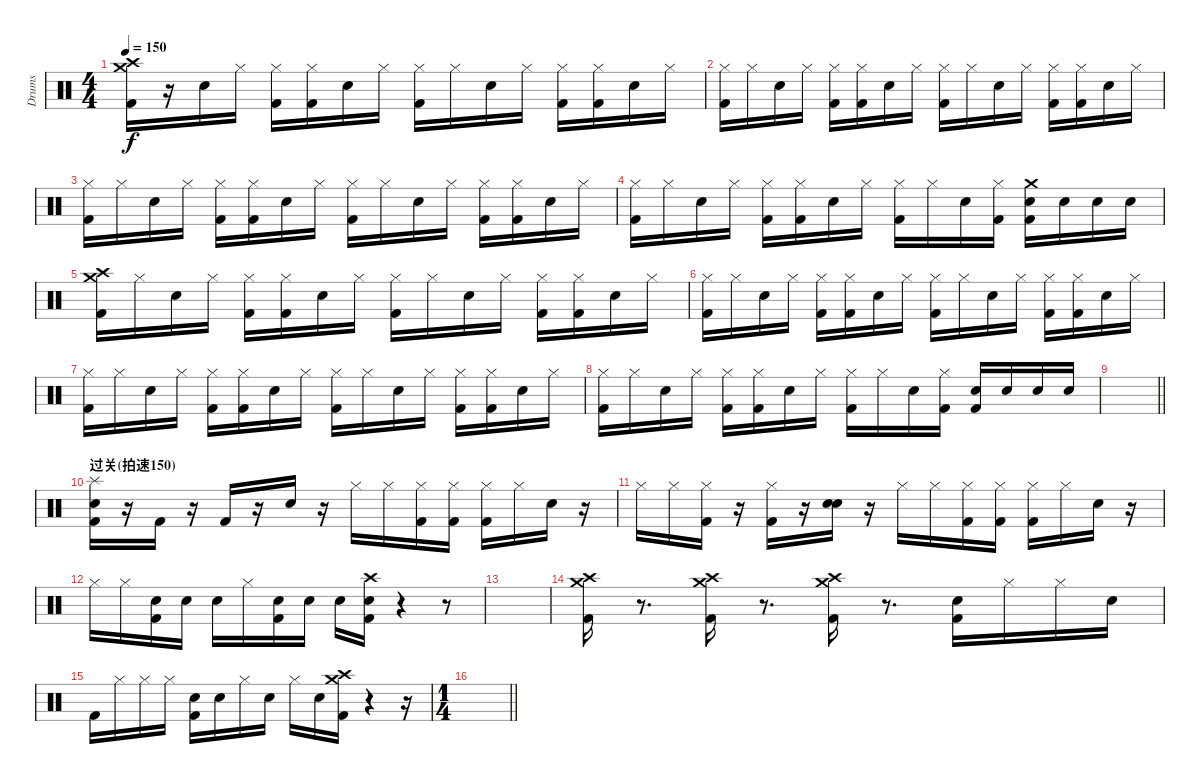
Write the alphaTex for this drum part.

\track ("Drums" "Drums") {instrument percussion}
\staff {score}
\articulation defaults
\ts (4 4)
\tempo 150
\clef neutral
\ks c
("Crash medium (hit)" "Crash high (hit)" "Kick (hit) 2").16{dy f} r.16 "Snare (hit) 2".16 "Hi-Hat (closed)".16 ("Hi-Hat (closed)" "Kick (hit) 2").16 ("Hi-Hat (closed)" "Kick (hit) 2").16 "Snare (hit) 2".16 "Hi-Hat (closed)".16 ("Hi-Hat (closed)" "Kick (hit) 2").16 "Hi-Hat (closed)".16 "Snare (hit) 2".16 "Hi-Hat (closed)".16 ("Hi-Hat (closed)" "Kick (hit) 2").16 ("Hi-Hat (closed)" "Kick (hit) 2").16 "Snare (hit) 2".16 "Hi-Hat (closed)".16 |
("Hi-Hat (closed)" "Kick (hit) 2").16 "Hi-Hat (closed)".16 "Snare (hit) 2".16 "Hi-Hat (closed)".16 ("Hi-Hat (closed)" "Kick (hit) 2").16 ("Hi-Hat (closed)" "Kick (hit) 2").16 "Snare (hit) 2".16 "Hi-Hat (closed)".16 ("Hi-Hat (closed)" "Kick (hit) 2").16 "Hi-Hat (closed)".16 "Snare (hit) 2".16 "Hi-Hat (closed)".16 ("Hi-Hat (closed)" "Kick (hit) 2").16 ("Hi-Hat (closed)" "Kick (hit) 2").16 "Snare (hit) 2".16 "Hi-Hat (closed)".16 |
("Hi-Hat (closed)" "Kick (hit) 2").16 "Hi-Hat (closed)".16 "Snare (hit) 2".16 "Hi-Hat (closed)".16 ("Hi-Hat (closed)" "Kick (hit) 2").16 ("Hi-Hat (closed)" "Kick (hit) 2").16 "Snare (hit) 2".16 "Hi-Hat (closed)".16 ("Hi-Hat (closed)" "Kick (hit) 2").16 "Hi-Hat (closed)".16 "Snare (hit) 2".16 "Hi-Hat (closed)".16 ("Hi-Hat (closed)" "Kick (hit) 2").16 ("Hi-Hat (closed)" "Kick (hit) 2").16 "Snare (hit) 2".16 "Hi-Hat (closed)".16 |
("Hi-Hat (closed)" "Kick (hit) 2").16 "Hi-Hat (closed)".16 "Snare (hit) 2".16 "Hi-Hat (closed)".16 ("Hi-Hat (closed)" "Kick (hit) 2").16 ("Hi-Hat (closed)" "Kick (hit) 2").16 "Snare (hit) 2".16 "Hi-Hat (closed)".16 ("Hi-Hat (closed)" "Kick (hit) 2").16 "Hi-Hat (closed)".16 "Snare (hit) 2".16 ("Hi-Hat (closed)" "Kick (hit) 2").16 ("Crash medium (hit)" "Snare (hit) 2" "Kick (hit) 2").16 "Snare (hit) 2".16 "Snare (hit) 2".16 "Snare (hit) 2".16 |
("Crash medium (hit)" "Crash high (hit)" "Kick (hit) 2").16 "Hi-Hat (closed)".16 "Snare (hit) 2".16 "Hi-Hat (closed)".16 ("Hi-Hat (closed)" "Kick (hit) 2").16 ("Hi-Hat (closed)" "Kick (hit) 2").16 "Snare (hit) 2".16 "Hi-Hat (closed)".16 ("Hi-Hat (closed)" "Kick (hit) 2").16 "Hi-Hat (closed)".16 "Snare (hit) 2".16 "Hi-Hat (closed)".16 ("Hi-Hat (closed)" "Kick (hit) 2").16 ("Hi-Hat (closed)" "Kick (hit) 2").16 "Snare (hit) 2".16 "Hi-Hat (closed)".16 |
("Hi-Hat (closed)" "Kick (hit) 2").16 "Hi-Hat (closed)".16 "Snare (hit) 2".16 "Hi-Hat (closed)".16 ("Hi-Hat (closed)" "Kick (hit) 2").16 ("Hi-Hat (closed)" "Kick (hit) 2").16 "Snare (hit) 2".16 "Hi-Hat (closed)".16 ("Hi-Hat (closed)" "Kick (hit) 2").16 "Hi-Hat (closed)".16 "Snare (hit) 2".16 "Hi-Hat (closed)".16 ("Hi-Hat (closed)" "Kick (hit) 2").16 ("Hi-Hat (closed)" "Kick (hit) 2").16 "Snare (hit) 2".16 "Hi-Hat (closed)".16 |
("Hi-Hat (closed)" "Kick (hit) 2").16{volume 0} "Hi-Hat (closed)".16 "Snare (hit) 2".16 "Hi-Hat (closed)".16 ("Hi-Hat (closed)" "Kick (hit) 2").16 ("Hi-Hat (closed)" "Kick (hit) 2").16 "Snare (hit) 2".16 "Hi-Hat (closed)".16 ("Hi-Hat (closed)" "Kick (hit) 2").16 "Hi-Hat (closed)".16 "Snare (hit) 2".16 "Hi-Hat (closed)".16 ("Hi-Hat (closed)" "Kick (hit) 2").16 ("Hi-Hat (closed)" "Kick (hit) 2").16 "Snare (hit) 2".16 "Hi-Hat (closed)".16 |
("Hi-Hat (closed)" "Kick (hit) 2").16 "Hi-Hat (closed)".16 "Snare (hit) 2".16 "Hi-Hat (closed)".16 ("Hi-Hat (closed)" "Kick (hit) 2").16 ("Hi-Hat (closed)" "Kick (hit) 2").16 "Snare (hit) 2".16 "Hi-Hat (closed)".16 ("Hi-Hat (closed)" "Kick (hit) 2").16 "Hi-Hat (closed)".16 "Snare (hit) 2".16 ("Hi-Hat (closed)" "Kick (hit) 2").16 ("Snare (hit) 2" "Kick (hit) 2").16 "Snare (hit) 2".16 "Snare (hit) 2".16 "Snare (hit) 2".16 |
\barLineRight lightlight
|
\section ("" "过关(拍速150)")
("Splash (hit)" "Snare (hit) 2" "Kick (hit) 2").16{volume 13} r.16 "Kick (hit) 2".16 r.16 "Kick (hit) 2".16 r.16 "Snare (hit) 2".16 r.16 "Hi-Hat (closed)".16 "Hi-Hat (closed)".16 ("Hi-Hat (closed)" "Kick (hit) 2").16 ("Hi-Hat (closed)" "Kick (hit) 2").16 ("Hi-Hat (closed)" "Kick (hit) 2").16 "Hi-Hat (closed)".16 "Snare (hit) 2".16 r.16 |
"Hi-Hat (closed)".16 "Hi-Hat (closed)".16 ("Hi-Hat (closed)" "Kick (hit) 2").16 r.16 ("Hi-Hat (closed)" "Kick (hit) 2").16 r.16 ("Snare (hit) 2" "Snare (hit) 2").16 r.16 "Hi-Hat (closed)".16 "Hi-Hat (closed)".16 ("Hi-Hat (closed)" "Kick (hit) 2").16 ("Hi-Hat (closed)" "Kick (hit) 2").16 ("Hi-Hat (closed)" "Kick (hit) 2").16 "Hi-Hat (closed)".16 "Snare (hit) 2".16 r.16 |
"Hi-Hat (closed)".16 "Hi-Hat (closed)".16 ("Snare (hit) 2" "Kick (hit) 2").16 "Snare (hit) 2".16 "Snare (hit) 2".16 "Hi-Hat (closed)".16 ("Snare (hit) 2" "Kick (hit) 2").16 "Snare (hit) 2".16 "Snare (hit) 2".16 ("Crash high (hit)" "Snare (hit) 2" "Kick (hit) 2").16 r.4 r.8 |
|
("Crash medium (hit)" "Crash high (hit)" "Kick (hit) 2").16 r.8{d} ("Crash medium (hit)" "Crash high (hit)" "Kick (hit) 2").16 r.8{d} ("Crash medium (hit)" "Crash high (hit)" "Kick (hit) 2").16 r.8{d} ("Snare (hit) 2" "Kick (hit) 2").16 "Hi-Hat (closed)".16 "Hi-Hat (closed)".16 "Snare (hit) 2".16 |
"Kick (hit) 2".16 "Hi-Hat (closed)".16 "Hi-Hat (closed)".16 "Hi-Hat (closed)".16 ("Snare (hit) 2" "Kick (hit) 2").16 "Snare (hit) 2".16 "Hi-Hat (closed)".16 "Snare (hit) 2".16 "Hi-Hat (closed)".16 "Snare (hit) 2".16 ("Crash medium (hit)" "Crash high (hit)" "Kick (hit) 2").16 r.4 r.16 |
\ts (1 4)
\barLineRight lightlight
